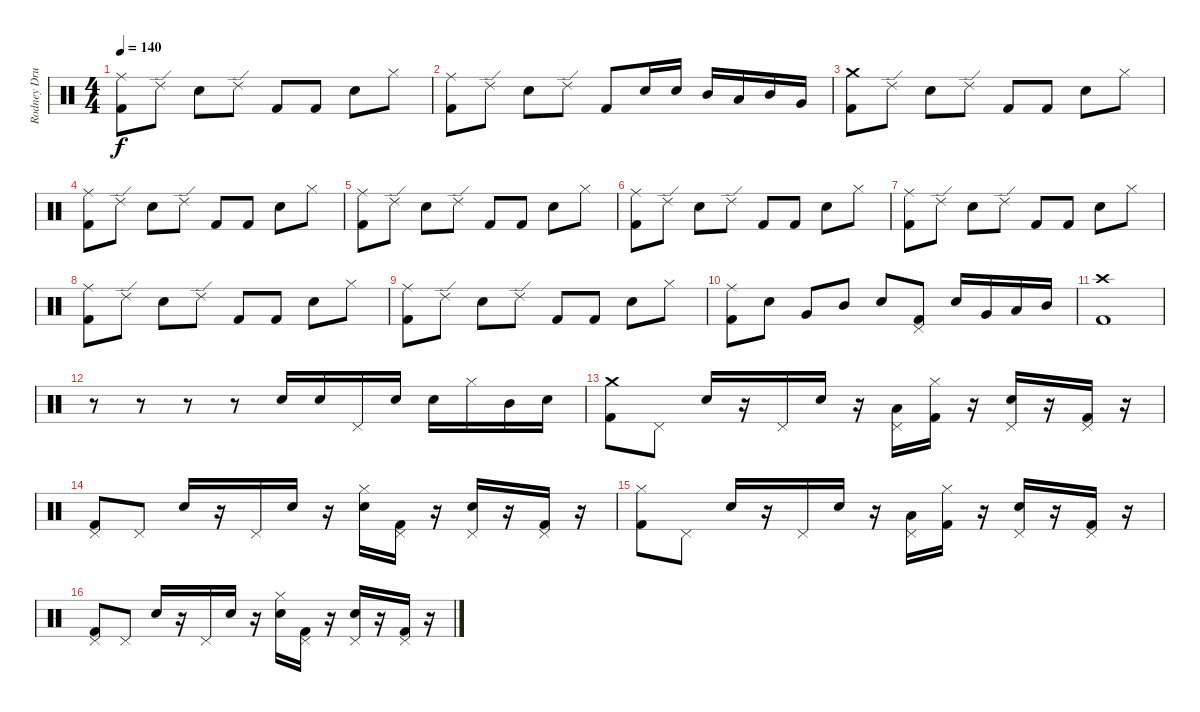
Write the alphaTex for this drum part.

\track ("Rodney Drums" "Rodney Dru") {instrument percussion}
\staff {score}
\articulation defaults
\ts (4 4)
\tempo 140
\clef neutral
\ks c
("Ride (middle)" "Kick (hit) 2").8{dy f} "Ride (edge) 2".8 "Electric Snare (hit)".8 "Ride (edge) 2".8 "Kick (hit) 2".8 "Kick (hit) 2".8 "Electric Snare (hit)".8 "Hi-Hat (closed)".8 |
("Ride (middle)" "Kick (hit) 2").8 "Ride (edge) 2".8 "Electric Snare (hit)".8 "Ride (edge) 2".8 "Kick (hit) 2".8 "Electric Snare (hit)".16 "Electric Snare (hit)".16 "Mid Tom (hit)".16 "Low Tom (hit)".16 "Mid Tom (hit)".16 "Very Low Tom (hit)".16 |
("Crash medium (hit)" "Kick (hit) 2").8 "Ride (edge) 2".8 "Electric Snare (hit)".8 "Ride (edge) 2".8 "Kick (hit) 2".8 "Kick (hit) 2".8 "Electric Snare (hit)".8 "Hi-Hat (closed)".8 |
("Ride (middle)" "Kick (hit) 2").8 "Ride (edge) 2".8 "Electric Snare (hit)".8 "Ride (edge) 2".8 "Kick (hit) 2".8 "Kick (hit) 2".8 "Electric Snare (hit)".8 "Hi-Hat (closed)".8 |
("Ride (middle)" "Kick (hit) 2").8 "Ride (edge) 2".8 "Electric Snare (hit)".8 "Ride (edge) 2".8 "Kick (hit) 2".8 "Kick (hit) 2".8 "Electric Snare (hit)".8 "Hi-Hat (closed)".8 |
("Ride (middle)" "Kick (hit) 2").8 "Ride (edge) 2".8 "Electric Snare (hit)".8 "Ride (edge) 2".8 "Kick (hit) 2".8 "Kick (hit) 2".8 "Electric Snare (hit)".8 "Hi-Hat (closed)".8 |
("Ride (middle)" "Kick (hit) 2").8 "Ride (edge) 2".8 "Electric Snare (hit)".8 "Ride (edge) 2".8 "Kick (hit) 2".8 "Kick (hit) 2".8 "Electric Snare (hit)".8 "Hi-Hat (closed)".8 |
("Ride (middle)" "Kick (hit) 2").8 "Ride (edge) 2".8 "Electric Snare (hit)".8 "Ride (edge) 2".8 "Kick (hit) 2".8 "Kick (hit) 2".8 "Electric Snare (hit)".8 "Hi-Hat (closed)".8 |
("Ride (middle)" "Kick (hit) 2").8 "Ride (edge) 2".8 "Electric Snare (hit)".8 "Ride (edge) 2".8 "Kick (hit) 2".8 "Kick (hit) 2".8 "Electric Snare (hit)".8 "Hi-Hat (closed)".8 |
("Ride (middle)" "Kick (hit) 2").8 "Electric Snare (hit)".8 "Very Low Tom (hit)".8 "Mid Tom (hit)".8 "Electric Snare (hit)".8 ("Pedal Hi-Hat (hit)" "Kick (hit) 2").8 "Electric Snare (hit)".16 "Very Low Tom (hit)".16 "Low Tom (hit)".16 "Mid Tom (hit)".16 |
("Crash high (hit)" "Kick (hit) 2").1 |
r.8 r.8 r.8 r.8 "Electric Snare (hit)".16 "Electric Snare (hit)".16 "Pedal Hi-Hat (hit)".16 "Electric Snare (hit)".16 "Electric Snare (hit)".16 "Hi-Hat (closed)".16 "Mid Tom (hit)".16 "Electric Snare (hit)".16 |
("Crash medium (hit)" "Kick (hit) 2").8 "Pedal Hi-Hat (hit)".8 "Electric Snare (hit)".16 r.16 "Pedal Hi-Hat (hit)".16 "Electric Snare (hit)".16 r.16 ("Pedal Hi-Hat (hit)" "Low Tom (hit)").16 ("Hi-Hat (closed)" "Kick (hit) 2").16 r.16 ("Pedal Hi-Hat (hit)" "Electric Snare (hit)").16 r.16 ("Pedal Hi-Hat (hit)" "Kick (hit) 2").16 r.16 |
("Pedal Hi-Hat (hit)" "Kick (hit) 2").8 "Pedal Hi-Hat (hit)".8 "Electric Snare (hit)".16 r.16 "Pedal Hi-Hat (hit)".16 "Electric Snare (hit)".16 r.16 ("Hi-Hat (closed)" "Electric Snare (hit)").16 ("Pedal Hi-Hat (hit)" "Kick (hit) 2").16 r.16 ("Pedal Hi-Hat (hit)" "Electric Snare (hit)").16 r.16 ("Pedal Hi-Hat (hit)" "Kick (hit) 2").16 r.16 |
("Hi-Hat (closed)" "Kick (hit) 2").8 "Pedal Hi-Hat (hit)".8 "Electric Snare (hit)".16 r.16 "Pedal Hi-Hat (hit)".16 "Electric Snare (hit)".16 r.16 ("Pedal Hi-Hat (hit)" "Low Tom (hit)").16 ("Hi-Hat (closed)" "Kick (hit) 2").16 r.16 ("Pedal Hi-Hat (hit)" "Electric Snare (hit)").16 r.16 ("Pedal Hi-Hat (hit)" "Kick (hit) 2").16 r.16 |
("Pedal Hi-Hat (hit)" "Kick (hit) 2").8 "Pedal Hi-Hat (hit)".8 "Electric Snare (hit)".16 r.16 "Pedal Hi-Hat (hit)".16 "Electric Snare (hit)".16 r.16 ("Hi-Hat (closed)" "Electric Snare (hit)").16 ("Pedal Hi-Hat (hit)" "Kick (hit) 2").16 r.16 ("Pedal Hi-Hat (hit)" "Electric Snare (hit)").16 r.16 ("Pedal Hi-Hat (hit)" "Kick (hit) 2").16 r.16
